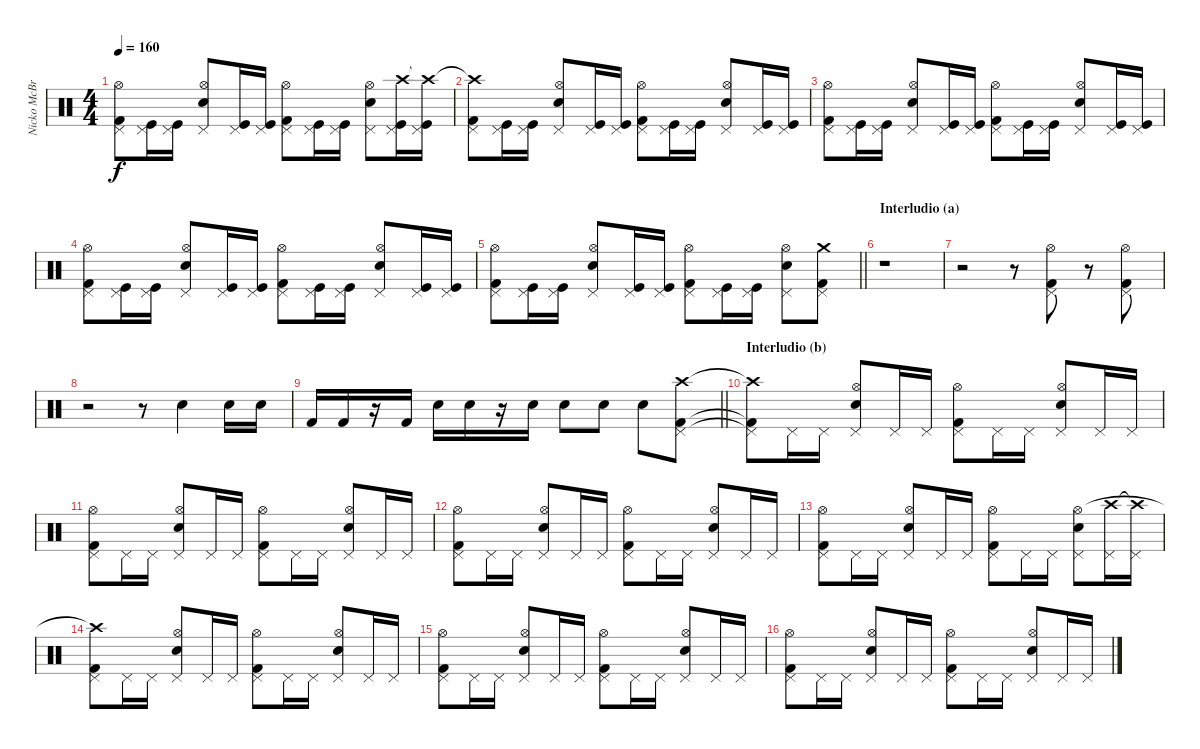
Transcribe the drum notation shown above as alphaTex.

\track ("Nicko McBrain" "Nicko McBr") {instrument percussion}
\staff {score}
\articulation defaults
\ts (4 4)
\tempo 160
\clef neutral
\ks c
("Kick (hit) 2" "Pedal Hi-Hat (hit)" "Hi-Hat (open)").8{dy f} ("Kick (hit)" "Pedal Hi-Hat (hit)").16 ("Kick (hit)" "Pedal Hi-Hat (hit)").16 ("Snare (hit) 2" "Pedal Hi-Hat (hit)" "Hi-Hat (open)").8 ("Kick (hit)" "Pedal Hi-Hat (hit)").16 ("Kick (hit)" "Pedal Hi-Hat (hit)").16 ("Kick (hit) 2" "Pedal Hi-Hat (hit)" "Hi-Hat (open)").8 ("Kick (hit)" "Pedal Hi-Hat (hit)").16 ("Kick (hit)" "Pedal Hi-Hat (hit)").16 ("Snare (hit) 2" "Pedal Hi-Hat (hit)" "Hi-Hat (open)").8 ("Kick (hit)" "Pedal Hi-Hat (hit)" "Crash high (hit)").16 ("Kick (hit)" "Pedal Hi-Hat (hit)" "Crash high (hit)"{t}).16 |
("Kick (hit) 2" "Pedal Hi-Hat (hit)" "Crash high (hit)"{t}).8 ("Kick (hit)" "Pedal Hi-Hat (hit)").16 ("Kick (hit)" "Pedal Hi-Hat (hit)").16 ("Snare (hit) 2" "Pedal Hi-Hat (hit)" "Hi-Hat (open)").8 ("Kick (hit)" "Pedal Hi-Hat (hit)").16 ("Kick (hit)" "Pedal Hi-Hat (hit)").16 ("Kick (hit) 2" "Pedal Hi-Hat (hit)" "Hi-Hat (open)").8 ("Kick (hit)" "Pedal Hi-Hat (hit)").16 ("Kick (hit)" "Pedal Hi-Hat (hit)").16 ("Snare (hit) 2" "Pedal Hi-Hat (hit)" "Hi-Hat (open)").8 ("Kick (hit)" "Pedal Hi-Hat (hit)").16 ("Kick (hit)" "Pedal Hi-Hat (hit)").16 |
("Kick (hit) 2" "Pedal Hi-Hat (hit)" "Hi-Hat (open)").8 ("Kick (hit)" "Pedal Hi-Hat (hit)").16 ("Kick (hit)" "Pedal Hi-Hat (hit)").16 ("Snare (hit) 2" "Pedal Hi-Hat (hit)" "Hi-Hat (open)").8 ("Kick (hit)" "Pedal Hi-Hat (hit)").16 ("Kick (hit)" "Pedal Hi-Hat (hit)").16 ("Kick (hit) 2" "Pedal Hi-Hat (hit)" "Hi-Hat (open)").8 ("Kick (hit)" "Pedal Hi-Hat (hit)").16 ("Kick (hit)" "Pedal Hi-Hat (hit)").16 ("Snare (hit) 2" "Pedal Hi-Hat (hit)" "Hi-Hat (open)").8 ("Kick (hit)" "Pedal Hi-Hat (hit)").16 ("Kick (hit)" "Pedal Hi-Hat (hit)").16 |
("Kick (hit) 2" "Pedal Hi-Hat (hit)" "Hi-Hat (open)").8 ("Kick (hit)" "Pedal Hi-Hat (hit)").16 ("Kick (hit)" "Pedal Hi-Hat (hit)").16 ("Snare (hit) 2" "Pedal Hi-Hat (hit)" "Hi-Hat (open)").8 ("Kick (hit)" "Pedal Hi-Hat (hit)").16 ("Kick (hit)" "Pedal Hi-Hat (hit)").16 ("Kick (hit) 2" "Pedal Hi-Hat (hit)" "Hi-Hat (open)").8 ("Kick (hit)" "Pedal Hi-Hat (hit)").16 ("Kick (hit)" "Pedal Hi-Hat (hit)").16 ("Snare (hit) 2" "Pedal Hi-Hat (hit)" "Hi-Hat (open)").8 ("Kick (hit)" "Pedal Hi-Hat (hit)").16 ("Kick (hit)" "Pedal Hi-Hat (hit)").16 |
\barLineRight lightlight
("Kick (hit) 2" "Pedal Hi-Hat (hit)" "Hi-Hat (open)").8 ("Kick (hit)" "Pedal Hi-Hat (hit)").16 ("Kick (hit)" "Pedal Hi-Hat (hit)").16 ("Snare (hit) 2" "Pedal Hi-Hat (hit)" "Hi-Hat (open)").8 ("Kick (hit)" "Pedal Hi-Hat (hit)").16 ("Kick (hit)" "Pedal Hi-Hat (hit)").16 ("Kick (hit) 2" "Pedal Hi-Hat (hit)" "Hi-Hat (open)").8 ("Kick (hit)" "Pedal Hi-Hat (hit)").16 ("Kick (hit)" "Pedal Hi-Hat (hit)").16 ("Snare (hit) 2" "Pedal Hi-Hat (hit)" "Hi-Hat (open)").8 ("Kick (hit) 2" "Pedal Hi-Hat (hit)" "Crash medium (hit)").8 |
\section ("" "Interludio (a)")
r.1 |
r.2 r.8 ("Kick (hit) 2" "Pedal Hi-Hat (hit)" "Hi-Hat (open)").8 r.8 ("Kick (hit) 2" "Pedal Hi-Hat (hit)" "Hi-Hat (open)").8 |
r.2 r.8 "Snare (hit) 2".4 "Snare (hit) 2".16 "Snare (hit) 2".16 |
\barLineRight lightlight "Kick (hit) 2".16 "Kick (hit) 2".16
r.16 "Kick (hit) 2".16 "Snare (hit) 2".16 "Snare (hit) 2".16 r.16 "Snare (hit) 2".16 "Snare (hit) 2".8 "Snare (hit) 2".8 "Snare (hit) 2".8 ("Kick (hit) 2" "Pedal Hi-Hat (hit)" "Crash high (hit)").8 |
\section ("" "Interludio (b)")
("Kick (hit) 2"{t} "Pedal Hi-Hat (hit)"{t} "Crash high (hit)"{t}).8 "Pedal Hi-Hat (hit)".16 "Pedal Hi-Hat (hit)".16 ("Snare (hit) 2" "Pedal Hi-Hat (hit)" "Hi-Hat (open)").8 "Pedal Hi-Hat (hit)".16 "Pedal Hi-Hat (hit)".16 ("Kick (hit) 2" "Pedal Hi-Hat (hit)" "Hi-Hat (open)").8 "Pedal Hi-Hat (hit)".16 "Pedal Hi-Hat (hit)".16 ("Snare (hit) 2" "Pedal Hi-Hat (hit)" "Hi-Hat (open)").8 "Pedal Hi-Hat (hit)".16 "Pedal Hi-Hat (hit)".16 |
("Kick (hit) 2" "Pedal Hi-Hat (hit)" "Hi-Hat (open)").8 "Pedal Hi-Hat (hit)".16 "Pedal Hi-Hat (hit)".16 ("Snare (hit) 2" "Pedal Hi-Hat (hit)" "Hi-Hat (open)").8 "Pedal Hi-Hat (hit)".16 "Pedal Hi-Hat (hit)".16 ("Kick (hit) 2" "Pedal Hi-Hat (hit)" "Hi-Hat (open)").8 "Pedal Hi-Hat (hit)".16 "Pedal Hi-Hat (hit)".16 ("Snare (hit) 2" "Pedal Hi-Hat (hit)" "Hi-Hat (open)").8 "Pedal Hi-Hat (hit)".16 "Pedal Hi-Hat (hit)".16 |
("Kick (hit) 2" "Pedal Hi-Hat (hit)" "Hi-Hat (open)").8 "Pedal Hi-Hat (hit)".16 "Pedal Hi-Hat (hit)".16 ("Snare (hit) 2" "Pedal Hi-Hat (hit)" "Hi-Hat (open)").8 "Pedal Hi-Hat (hit)".16 "Pedal Hi-Hat (hit)".16 ("Kick (hit) 2" "Pedal Hi-Hat (hit)" "Hi-Hat (open)").8 "Pedal Hi-Hat (hit)".16 "Pedal Hi-Hat (hit)".16 ("Snare (hit) 2" "Pedal Hi-Hat (hit)" "Hi-Hat (open)").8 "Pedal Hi-Hat (hit)".16 "Pedal Hi-Hat (hit)".16 |
("Kick (hit) 2" "Pedal Hi-Hat (hit)" "Hi-Hat (open)").8 "Pedal Hi-Hat (hit)".16 "Pedal Hi-Hat (hit)".16 ("Snare (hit) 2" "Pedal Hi-Hat (hit)" "Hi-Hat (open)").8 "Pedal Hi-Hat (hit)".16 "Pedal Hi-Hat (hit)".16 ("Kick (hit) 2" "Pedal Hi-Hat (hit)" "Hi-Hat (open)").8 "Pedal Hi-Hat (hit)".16 "Pedal Hi-Hat (hit)".16 ("Snare (hit) 2" "Pedal Hi-Hat (hit)" "Hi-Hat (open)").8 ("Pedal Hi-Hat (hit)" "Crash high (hit)").16 ("Pedal Hi-Hat (hit)" "Crash high (hit)"{t}).16 |
("Kick (hit) 2" "Pedal Hi-Hat (hit)" "Crash high (hit)"{t}).8 "Pedal Hi-Hat (hit)".16 "Pedal Hi-Hat (hit)".16 ("Snare (hit) 2" "Pedal Hi-Hat (hit)" "Hi-Hat (open)").8 "Pedal Hi-Hat (hit)".16 "Pedal Hi-Hat (hit)".16 ("Kick (hit) 2" "Pedal Hi-Hat (hit)" "Hi-Hat (open)").8 "Pedal Hi-Hat (hit)".16 "Pedal Hi-Hat (hit)".16 ("Snare (hit) 2" "Pedal Hi-Hat (hit)" "Hi-Hat (open)").8 "Pedal Hi-Hat (hit)".16 "Pedal Hi-Hat (hit)".16 |
("Kick (hit) 2" "Pedal Hi-Hat (hit)" "Hi-Hat (open)").8 "Pedal Hi-Hat (hit)".16 "Pedal Hi-Hat (hit)".16 ("Snare (hit) 2" "Pedal Hi-Hat (hit)" "Hi-Hat (open)").8 "Pedal Hi-Hat (hit)".16 "Pedal Hi-Hat (hit)".16 ("Kick (hit) 2" "Pedal Hi-Hat (hit)" "Hi-Hat (open)").8 "Pedal Hi-Hat (hit)".16 "Pedal Hi-Hat (hit)".16 ("Snare (hit) 2" "Pedal Hi-Hat (hit)" "Hi-Hat (open)").8 "Pedal Hi-Hat (hit)".16 "Pedal Hi-Hat (hit)".16 |
("Kick (hit) 2" "Pedal Hi-Hat (hit)" "Hi-Hat (open)").8 "Pedal Hi-Hat (hit)".16 "Pedal Hi-Hat (hit)".16 ("Snare (hit) 2" "Pedal Hi-Hat (hit)" "Hi-Hat (open)").8 "Pedal Hi-Hat (hit)".16 "Pedal Hi-Hat (hit)".16 ("Kick (hit) 2" "Pedal Hi-Hat (hit)" "Hi-Hat (open)").8 "Pedal Hi-Hat (hit)".16 "Pedal Hi-Hat (hit)".16 ("Snare (hit) 2" "Pedal Hi-Hat (hit)" "Hi-Hat (open)").8 "Pedal Hi-Hat (hit)".16 "Pedal Hi-Hat (hit)".16
